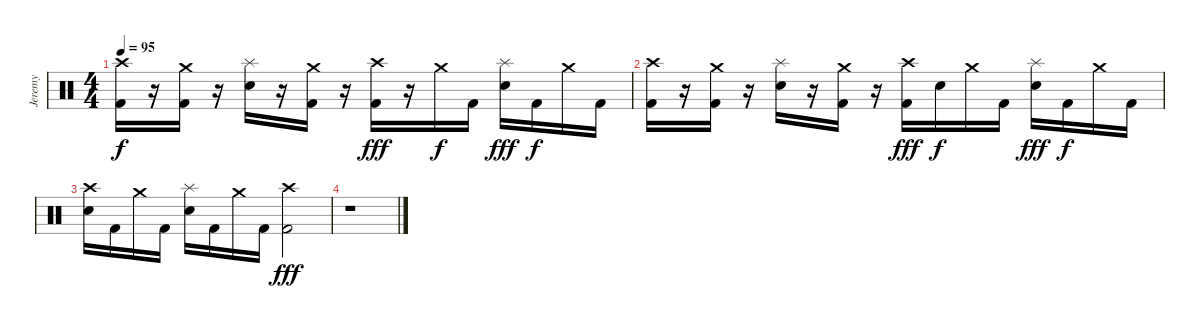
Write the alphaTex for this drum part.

\track ("Jeremy" "Jeremy") {instrument percussion}
\staff {score}
\articulation defaults
\ts (4 4)
\tempo 95
\clef neutral
\ks c
("Crash high (hit)" "Kick (hit) 2").16{dy f} r.16 ("Crash medium (hit)" "Kick (hit) 2").16 r.16 ("Splash (hit)" "Electric Snare (hit)").16 r.16 ("Crash medium (hit)" "Kick (hit) 2").16 r.16 ("Crash high (hit)" "Kick (hit) 2").16{dy fff} r.16 "Crash medium (hit)".16{dy f} "Kick (hit) 2".16 ("Splash (hit)" "Electric Snare (hit)").16{dy fff} "Kick (hit) 2".16{dy f} "Crash medium (hit)".16 "Kick (hit) 2".16 |
("Crash high (hit)" "Kick (hit) 2").16 r.16 ("Crash medium (hit)" "Kick (hit) 2").16 r.16 ("Splash (hit)" "Electric Snare (hit)").16 r.16 ("Crash medium (hit)" "Kick (hit) 2").16 r.16 ("Crash high (hit)" "Kick (hit) 2").16{dy fff} "Electric Snare (hit)".16{dy f} "Crash medium (hit)".16 "Kick (hit) 2".16 ("Splash (hit)" "Electric Snare (hit)").16{dy fff} "Kick (hit) 2".16{dy f} "Crash medium (hit)".16 "Kick (hit) 2".16 |
("Crash high (hit)" "Electric Snare (hit)").16 "Kick (hit) 2".16 "Crash medium (hit)".16 "Kick (hit) 2".16 ("Splash (hit)" "Electric Snare (hit)").16 "Kick (hit) 2".16 "Crash medium (hit)".16 "Kick (hit) 2".16 ("Crash high (hit)" "Kick (hit) 2").2{dy fff} |
r.1
